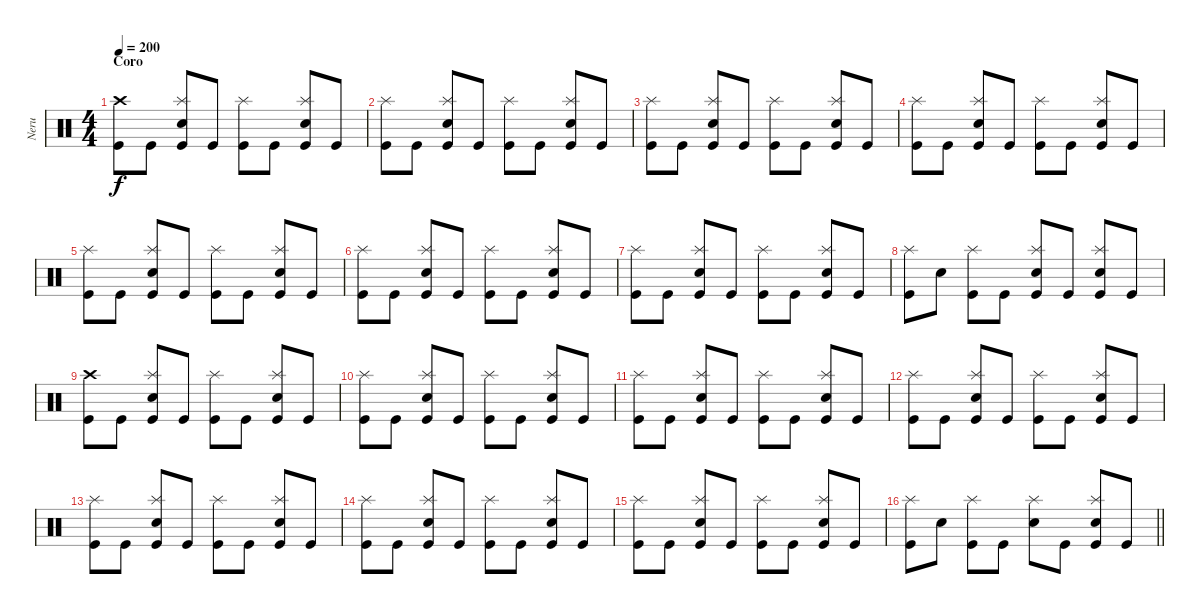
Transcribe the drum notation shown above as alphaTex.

\track ("Neru" "Neru") {instrument percussion}
\staff {score}
\articulation defaults
\ts (4 4)
\section ("" "Coro")
\tempo 200
\clef neutral
\ks c
("Crash high (hit)" "Kick (hit)").8{dy f} "Kick (hit)".8 ("Splash (hit)" "Electric Snare (hit)" "Kick (hit)").8 "Kick (hit)".8 ("Splash (hit)" "Kick (hit)").8 "Kick (hit)".8 ("Splash (hit)" "Electric Snare (hit)" "Kick (hit)").8 "Kick (hit)".8 |
("Splash (hit)" "Kick (hit)").8 "Kick (hit)".8 ("Splash (hit)" "Electric Snare (hit)" "Kick (hit)").8 "Kick (hit)".8 ("Splash (hit)" "Kick (hit)").8 "Kick (hit)".8 ("Splash (hit)" "Electric Snare (hit)" "Kick (hit)").8 "Kick (hit)".8 |
("Splash (hit)" "Kick (hit)").8 "Kick (hit)".8 ("Splash (hit)" "Electric Snare (hit)" "Kick (hit)").8 "Kick (hit)".8 ("Splash (hit)" "Kick (hit)").8 "Kick (hit)".8 ("Splash (hit)" "Electric Snare (hit)" "Kick (hit)").8 "Kick (hit)".8 |
("Splash (hit)" "Kick (hit)").8 "Kick (hit)".8 ("Splash (hit)" "Electric Snare (hit)" "Kick (hit)").8 "Kick (hit)".8 ("Splash (hit)" "Kick (hit)").8 "Kick (hit)".8 ("Splash (hit)" "Electric Snare (hit)" "Kick (hit)").8 "Kick (hit)".8 |
("Splash (hit)" "Kick (hit)").8 "Kick (hit)".8 ("Splash (hit)" "Electric Snare (hit)" "Kick (hit)").8 "Kick (hit)".8 ("Splash (hit)" "Kick (hit)").8 "Kick (hit)".8 ("Splash (hit)" "Electric Snare (hit)" "Kick (hit)").8 "Kick (hit)".8 |
("Splash (hit)" "Kick (hit)").8 "Kick (hit)".8 ("Splash (hit)" "Electric Snare (hit)" "Kick (hit)").8 "Kick (hit)".8 ("Splash (hit)" "Kick (hit)").8 "Kick (hit)".8 ("Splash (hit)" "Electric Snare (hit)" "Kick (hit)").8 "Kick (hit)".8 |
("Splash (hit)" "Kick (hit)").8 "Kick (hit)".8 ("Splash (hit)" "Electric Snare (hit)" "Kick (hit)").8 "Kick (hit)".8 ("Splash (hit)" "Kick (hit)").8 "Kick (hit)".8 ("Splash (hit)" "Electric Snare (hit)" "Kick (hit)").8 "Kick (hit)".8 |
("Splash (hit)" "Kick (hit)").8 "Electric Snare (hit)".8 ("Splash (hit)" "Kick (hit)").8 "Kick (hit)".8 ("Splash (hit)" "Electric Snare (hit)" "Kick (hit)").8 "Kick (hit)".8 ("Splash (hit)" "Electric Snare (hit)" "Kick (hit)").8 "Kick (hit)".8 |
("Crash high (hit)" "Kick (hit)").8 "Kick (hit)".8 ("Splash (hit)" "Electric Snare (hit)" "Kick (hit)").8 "Kick (hit)".8 ("Splash (hit)" "Kick (hit)").8 "Kick (hit)".8 ("Splash (hit)" "Electric Snare (hit)" "Kick (hit)").8 "Kick (hit)".8 |
("Splash (hit)" "Kick (hit)").8 "Kick (hit)".8 ("Splash (hit)" "Electric Snare (hit)" "Kick (hit)").8 "Kick (hit)".8 ("Splash (hit)" "Kick (hit)").8 "Kick (hit)".8 ("Splash (hit)" "Electric Snare (hit)" "Kick (hit)").8 "Kick (hit)".8 |
("Splash (hit)" "Kick (hit)").8 "Kick (hit)".8 ("Splash (hit)" "Electric Snare (hit)" "Kick (hit)").8 "Kick (hit)".8 ("Splash (hit)" "Kick (hit)").8 "Kick (hit)".8 ("Splash (hit)" "Electric Snare (hit)" "Kick (hit)").8 "Kick (hit)".8 |
("Splash (hit)" "Kick (hit)").8 "Kick (hit)".8 ("Splash (hit)" "Electric Snare (hit)" "Kick (hit)").8 "Kick (hit)".8 ("Splash (hit)" "Kick (hit)").8 "Kick (hit)".8 ("Splash (hit)" "Electric Snare (hit)" "Kick (hit)").8 "Kick (hit)".8 |
("Splash (hit)" "Kick (hit)").8 "Kick (hit)".8 ("Splash (hit)" "Electric Snare (hit)" "Kick (hit)").8 "Kick (hit)".8 ("Splash (hit)" "Kick (hit)").8 "Kick (hit)".8 ("Splash (hit)" "Electric Snare (hit)" "Kick (hit)").8 "Kick (hit)".8 |
("Splash (hit)" "Kick (hit)").8 "Kick (hit)".8 ("Splash (hit)" "Electric Snare (hit)" "Kick (hit)").8 "Kick (hit)".8 ("Splash (hit)" "Kick (hit)").8 "Kick (hit)".8 ("Splash (hit)" "Electric Snare (hit)" "Kick (hit)").8 "Kick (hit)".8 |
("Splash (hit)" "Kick (hit)").8 "Kick (hit)".8 ("Splash (hit)" "Electric Snare (hit)" "Kick (hit)").8 "Kick (hit)".8 ("Splash (hit)" "Kick (hit)").8 "Kick (hit)".8 ("Splash (hit)" "Electric Snare (hit)" "Kick (hit)").8 "Kick (hit)".8 |
\barLineRight lightlight
("Splash (hit)" "Kick (hit)").8 "Electric Snare (hit)".8 ("Splash (hit)" "Kick (hit)").8 "Kick (hit)".8 ("Splash (hit)" "Electric Snare (hit)").8 "Kick (hit)".8 ("Splash (hit)" "Electric Snare (hit)" "Kick (hit)").8 "Kick (hit)".8
